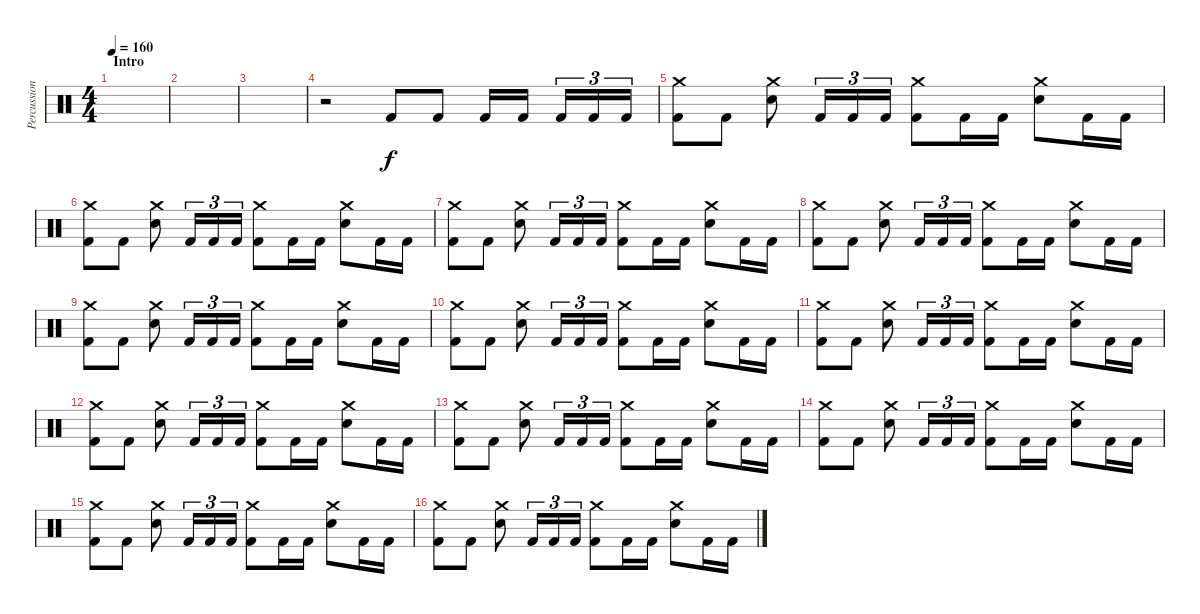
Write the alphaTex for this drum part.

\track ("Percussion" "Percussion") {instrument percussion}
\staff {score}
\articulation defaults
\ts (4 4)
\section ("" "Intro")
\tempo 160
\clef neutral
\ks c
|
|
|
r.2 "Kick (hit) 2".8 "Kick (hit) 2".8 "Kick (hit) 2".16 "Kick (hit) 2".16 "Kick (hit) 2".16{tu (3 2)} "Kick (hit) 2".16{tu (3 2)} "Kick (hit) 2".16{tu (3 2)} |
("Kick (hit) 2" "Crash medium (hit)").8 "Kick (hit) 2".8 ("Electric Snare (hit)" "Crash medium (hit)").8 "Kick (hit) 2".16{tu (3 2)} "Kick (hit) 2".16{tu (3 2)} "Kick (hit) 2".16{tu (3 2)} ("Kick (hit) 2" "Crash medium (hit)").8 "Kick (hit) 2".16 "Kick (hit) 2".16 ("Electric Snare (hit)" "Crash medium (hit)").8 "Kick (hit) 2".16 "Kick (hit) 2".16 |
("Kick (hit) 2" "Crash medium (hit)").8 "Kick (hit) 2".8 ("Electric Snare (hit)" "Crash medium (hit)").8 "Kick (hit) 2".16{tu (3 2)} "Kick (hit) 2".16{tu (3 2)} "Kick (hit) 2".16{tu (3 2)} ("Kick (hit) 2" "Crash medium (hit)").8 "Kick (hit) 2".16 "Kick (hit) 2".16 ("Electric Snare (hit)" "Crash medium (hit)").8 "Kick (hit) 2".16 "Kick (hit) 2".16 |
("Kick (hit) 2" "Crash medium (hit)").8 "Kick (hit) 2".8 ("Electric Snare (hit)" "Crash medium (hit)").8 "Kick (hit) 2".16{tu (3 2)} "Kick (hit) 2".16{tu (3 2)} "Kick (hit) 2".16{tu (3 2)} ("Kick (hit) 2" "Crash medium (hit)").8 "Kick (hit) 2".16 "Kick (hit) 2".16 ("Electric Snare (hit)" "Crash medium (hit)").8 "Kick (hit) 2".16 "Kick (hit) 2".16 |
("Kick (hit) 2" "Crash medium (hit)").8 "Kick (hit) 2".8 ("Electric Snare (hit)" "Crash medium (hit)").8 "Kick (hit) 2".16{tu (3 2)} "Kick (hit) 2".16{tu (3 2)} "Kick (hit) 2".16{tu (3 2)} ("Kick (hit) 2" "Crash medium (hit)").8 "Kick (hit) 2".16 "Kick (hit) 2".16 ("Electric Snare (hit)" "Crash medium (hit)").8 "Kick (hit) 2".16 "Kick (hit) 2".16 |
("Kick (hit) 2" "Crash medium (hit)").8 "Kick (hit) 2".8 ("Electric Snare (hit)" "Crash medium (hit)").8 "Kick (hit) 2".16{tu (3 2)} "Kick (hit) 2".16{tu (3 2)} "Kick (hit) 2".16{tu (3 2)} ("Kick (hit) 2" "Crash medium (hit)").8 "Kick (hit) 2".16 "Kick (hit) 2".16 ("Electric Snare (hit)" "Crash medium (hit)").8 "Kick (hit) 2".16 "Kick (hit) 2".16 |
("Kick (hit) 2" "Crash medium (hit)").8 "Kick (hit) 2".8 ("Electric Snare (hit)" "Crash medium (hit)").8 "Kick (hit) 2".16{tu (3 2)} "Kick (hit) 2".16{tu (3 2)} "Kick (hit) 2".16{tu (3 2)} ("Kick (hit) 2" "Crash medium (hit)").8 "Kick (hit) 2".16 "Kick (hit) 2".16 ("Electric Snare (hit)" "Crash medium (hit)").8 "Kick (hit) 2".16 "Kick (hit) 2".16 |
("Kick (hit) 2" "Crash medium (hit)").8 "Kick (hit) 2".8 ("Electric Snare (hit)" "Crash medium (hit)").8 "Kick (hit) 2".16{tu (3 2)} "Kick (hit) 2".16{tu (3 2)} "Kick (hit) 2".16{tu (3 2)} ("Kick (hit) 2" "Crash medium (hit)").8 "Kick (hit) 2".16 "Kick (hit) 2".16 ("Electric Snare (hit)" "Crash medium (hit)").8 "Kick (hit) 2".16 "Kick (hit) 2".16 |
("Kick (hit) 2" "Crash medium (hit)").8 "Kick (hit) 2".8 ("Electric Snare (hit)" "Crash medium (hit)").8 "Kick (hit) 2".16{tu (3 2)} "Kick (hit) 2".16{tu (3 2)} "Kick (hit) 2".16{tu (3 2)} ("Kick (hit) 2" "Crash medium (hit)").8 "Kick (hit) 2".16 "Kick (hit) 2".16 ("Electric Snare (hit)" "Crash medium (hit)").8 "Kick (hit) 2".16 "Kick (hit) 2".16 |
("Kick (hit) 2" "Crash medium (hit)").8 "Kick (hit) 2".8 ("Electric Snare (hit)" "Crash medium (hit)").8 "Kick (hit) 2".16{tu (3 2)} "Kick (hit) 2".16{tu (3 2)} "Kick (hit) 2".16{tu (3 2)} ("Kick (hit) 2" "Crash medium (hit)").8 "Kick (hit) 2".16 "Kick (hit) 2".16 ("Electric Snare (hit)" "Crash medium (hit)").8 "Kick (hit) 2".16 "Kick (hit) 2".16 |
("Kick (hit) 2" "Crash medium (hit)").8 "Kick (hit) 2".8 ("Electric Snare (hit)" "Crash medium (hit)").8 "Kick (hit) 2".16{tu (3 2)} "Kick (hit) 2".16{tu (3 2)} "Kick (hit) 2".16{tu (3 2)} ("Kick (hit) 2" "Crash medium (hit)").8 "Kick (hit) 2".16 "Kick (hit) 2".16 ("Electric Snare (hit)" "Crash medium (hit)").8 "Kick (hit) 2".16 "Kick (hit) 2".16 |
("Kick (hit) 2" "Crash medium (hit)").8 "Kick (hit) 2".8 ("Electric Snare (hit)" "Crash medium (hit)").8 "Kick (hit) 2".16{tu (3 2)} "Kick (hit) 2".16{tu (3 2)} "Kick (hit) 2".16{tu (3 2)} ("Kick (hit) 2" "Crash medium (hit)").8 "Kick (hit) 2".16 "Kick (hit) 2".16 ("Electric Snare (hit)" "Crash medium (hit)").8 "Kick (hit) 2".16 "Kick (hit) 2".16 |
("Kick (hit) 2" "Crash medium (hit)").8 "Kick (hit) 2".8 ("Electric Snare (hit)" "Crash medium (hit)").8 "Kick (hit) 2".16{tu (3 2)} "Kick (hit) 2".16{tu (3 2)} "Kick (hit) 2".16{tu (3 2)} ("Kick (hit) 2" "Crash medium (hit)").8 "Kick (hit) 2".16 "Kick (hit) 2".16 ("Electric Snare (hit)" "Crash medium (hit)").8 "Kick (hit) 2".16 "Kick (hit) 2".16
